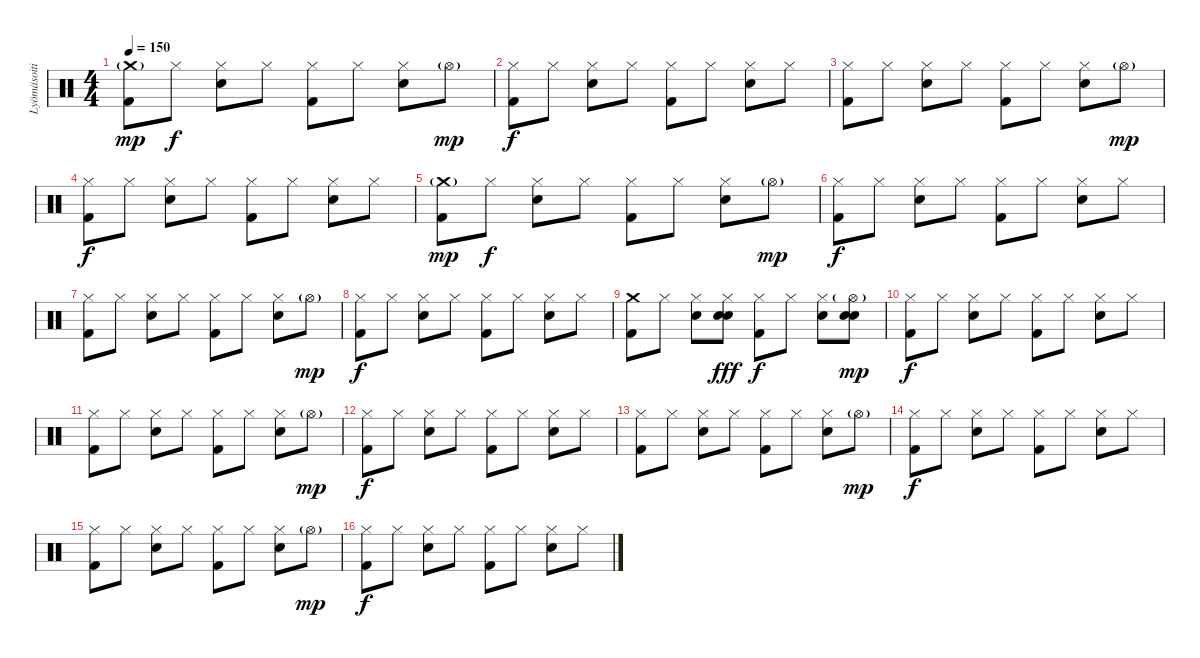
\track ("Lyömäsoitin" "Lyömäsoiti") {instrument percussion}
\staff {score}
\articulation defaults
\ts (4 4)
\tempo 150
\clef neutral
\ks c
("Kick (hit) 2" "Crash medium (hit)"{g}).8{dy mp} "Hi-Hat (closed)".8{dy f} ("Snare (hit) 2" "Hi-Hat (closed)").8 "Hi-Hat (closed)".8 ("Kick (hit) 2" "Hi-Hat (closed)").8 "Hi-Hat (closed)".8 ("Snare (hit) 2" "Hi-Hat (closed)").8 "Hi-Hat (open)"{g}.8{dy mp} |
("Kick (hit) 2" "Hi-Hat (closed)").8{dy f} "Hi-Hat (closed)".8 ("Snare (hit) 2" "Hi-Hat (closed)").8 "Hi-Hat (closed)".8 ("Kick (hit) 2" "Hi-Hat (closed)").8 "Hi-Hat (closed)".8 ("Snare (hit) 2" "Hi-Hat (closed)").8 "Hi-Hat (closed)".8 |
("Kick (hit) 2" "Hi-Hat (closed)").8 "Hi-Hat (closed)".8 ("Snare (hit) 2" "Hi-Hat (closed)").8 "Hi-Hat (closed)".8 ("Kick (hit) 2" "Hi-Hat (closed)").8 "Hi-Hat (closed)".8 ("Snare (hit) 2" "Hi-Hat (closed)").8 "Hi-Hat (open)"{g}.8{dy mp} |
("Kick (hit) 2" "Hi-Hat (closed)").8{dy f} "Hi-Hat (closed)".8 ("Snare (hit) 2" "Hi-Hat (closed)").8 "Hi-Hat (closed)".8 ("Kick (hit) 2" "Hi-Hat (closed)").8 "Hi-Hat (closed)".8 ("Snare (hit) 2" "Hi-Hat (closed)").8 "Hi-Hat (closed)".8 |
("Kick (hit) 2" "Crash medium (hit)"{g}).8{dy mp} "Hi-Hat (closed)".8{dy f} ("Snare (hit) 2" "Hi-Hat (closed)").8 "Hi-Hat (closed)".8 ("Kick (hit) 2" "Hi-Hat (closed)").8 "Hi-Hat (closed)".8 ("Snare (hit) 2" "Hi-Hat (closed)").8 "Hi-Hat (open)"{g}.8{dy mp} |
("Kick (hit) 2" "Hi-Hat (closed)").8{dy f} "Hi-Hat (closed)".8 ("Snare (hit) 2" "Hi-Hat (closed)").8 "Hi-Hat (closed)".8 ("Kick (hit) 2" "Hi-Hat (closed)").8 "Hi-Hat (closed)".8 ("Snare (hit) 2" "Hi-Hat (closed)").8 "Hi-Hat (closed)".8 |
("Kick (hit) 2" "Hi-Hat (closed)").8 "Hi-Hat (closed)".8 ("Snare (hit) 2" "Hi-Hat (closed)").8 "Hi-Hat (closed)".8 ("Kick (hit) 2" "Hi-Hat (closed)").8 "Hi-Hat (closed)".8 ("Snare (hit) 2" "Hi-Hat (closed)").8 "Hi-Hat (open)"{g}.8{dy mp} |
("Kick (hit) 2" "Hi-Hat (closed)").8{dy f} "Hi-Hat (closed)".8 ("Snare (hit) 2" "Hi-Hat (closed)").8 "Hi-Hat (closed)".8 ("Kick (hit) 2" "Hi-Hat (closed)").8 "Hi-Hat (closed)".8 ("Snare (hit) 2" "Hi-Hat (closed)").8 "Hi-Hat (closed)".8 |
("Kick (hit) 2" "Crash medium (hit)").8 "Hi-Hat (closed)".8 ("Snare (hit) 2" "Hi-Hat (closed)").8 ("Electric Snare (hit)" "Hand Clap (hit)" "Hi-Hat (closed)").8{dy fff} ("Kick (hit) 2" "Hi-Hat (closed)").8{dy f} "Hi-Hat (closed)".8 ("Snare (hit) 2" "Hi-Hat (closed)").8 ("Electric Snare (hit)" "Hand Clap (hit)" "Hi-Hat (open)"{g}).8{dy mp} |
("Kick (hit) 2" "Hi-Hat (closed)").8{dy f} "Hi-Hat (closed)".8 ("Snare (hit) 2" "Hi-Hat (closed)").8 "Hi-Hat (closed)".8 ("Kick (hit) 2" "Hi-Hat (closed)").8 "Hi-Hat (closed)".8 ("Snare (hit) 2" "Hi-Hat (closed)").8 "Hi-Hat (closed)".8 |
("Kick (hit) 2" "Hi-Hat (closed)").8 "Hi-Hat (closed)".8 ("Snare (hit) 2" "Hi-Hat (closed)").8 "Hi-Hat (closed)".8 ("Kick (hit) 2" "Hi-Hat (closed)").8 "Hi-Hat (closed)".8 ("Snare (hit) 2" "Hi-Hat (closed)").8 "Hi-Hat (open)"{g}.8{dy mp} |
("Kick (hit) 2" "Hi-Hat (closed)").8{dy f} "Hi-Hat (closed)".8 ("Snare (hit) 2" "Hi-Hat (closed)").8 "Hi-Hat (closed)".8 ("Kick (hit) 2" "Hi-Hat (closed)").8 "Hi-Hat (closed)".8 ("Snare (hit) 2" "Hi-Hat (closed)").8 "Hi-Hat (closed)".8 |
("Kick (hit) 2" "Hi-Hat (closed)").8 "Hi-Hat (closed)".8 ("Snare (hit) 2" "Hi-Hat (closed)").8 "Hi-Hat (closed)".8 ("Kick (hit) 2" "Hi-Hat (closed)").8 "Hi-Hat (closed)".8 ("Snare (hit) 2" "Hi-Hat (closed)").8 "Hi-Hat (open)"{g}.8{dy mp} |
("Kick (hit) 2" "Hi-Hat (closed)").8{dy f} "Hi-Hat (closed)".8 ("Snare (hit) 2" "Hi-Hat (closed)").8 "Hi-Hat (closed)".8 ("Kick (hit) 2" "Hi-Hat (closed)").8 "Hi-Hat (closed)".8 ("Snare (hit) 2" "Hi-Hat (closed)").8 "Hi-Hat (closed)".8 |
("Kick (hit) 2" "Hi-Hat (closed)").8 "Hi-Hat (closed)".8 ("Snare (hit) 2" "Hi-Hat (closed)").8 "Hi-Hat (closed)".8 ("Kick (hit) 2" "Hi-Hat (closed)").8 "Hi-Hat (closed)".8 ("Snare (hit) 2" "Hi-Hat (closed)").8 "Hi-Hat (open)"{g}.8{dy mp} |
("Kick (hit) 2" "Hi-Hat (closed)").8{dy f} "Hi-Hat (closed)".8 ("Snare (hit) 2" "Hi-Hat (closed)").8 "Hi-Hat (closed)".8 ("Kick (hit) 2" "Hi-Hat (closed)").8 "Hi-Hat (closed)".8 ("Snare (hit) 2" "Hi-Hat (closed)").8 "Hi-Hat (closed)".8
